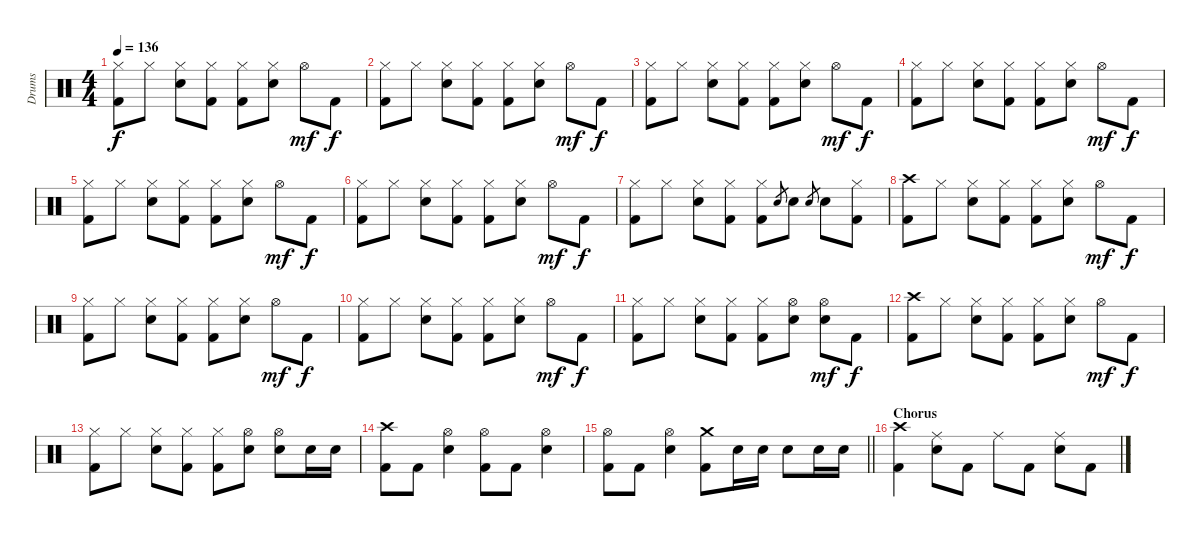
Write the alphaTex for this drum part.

\track ("Drums" "Drums") {instrument percussion}
\staff {score}
\articulation defaults
\ts (4 4)
\tempo 136
\clef neutral
\ks c
("Hi-Hat (closed)" "Kick (hit) 2").8{dy f} "Hi-Hat (closed)".8 ("Hi-Hat (closed)" "Electric Snare (hit)").8 ("Hi-Hat (closed)" "Kick (hit) 2").8 ("Hi-Hat (closed)" "Kick (hit) 2").8 ("Hi-Hat (closed)" "Electric Snare (hit)").8 "Hi-Hat (open)".8{dy mf} "Kick (hit) 2".8{dy f} |
("Hi-Hat (closed)" "Kick (hit) 2").8 "Hi-Hat (closed)".8 ("Hi-Hat (closed)" "Electric Snare (hit)").8 ("Hi-Hat (closed)" "Kick (hit) 2").8 ("Hi-Hat (closed)" "Kick (hit) 2").8 ("Hi-Hat (closed)" "Electric Snare (hit)").8 "Hi-Hat (open)".8{dy mf} "Kick (hit) 2".8{dy f} |
("Hi-Hat (closed)" "Kick (hit) 2").8 "Hi-Hat (closed)".8 ("Hi-Hat (closed)" "Electric Snare (hit)").8 ("Hi-Hat (closed)" "Kick (hit) 2").8 ("Hi-Hat (closed)" "Kick (hit) 2").8 ("Hi-Hat (closed)" "Electric Snare (hit)").8 "Hi-Hat (open)".8{dy mf} "Kick (hit) 2".8{dy f} |
("Hi-Hat (closed)" "Kick (hit) 2").8 "Hi-Hat (closed)".8 ("Hi-Hat (closed)" "Electric Snare (hit)").8 ("Hi-Hat (closed)" "Kick (hit) 2").8 ("Hi-Hat (closed)" "Kick (hit) 2").8 ("Hi-Hat (closed)" "Electric Snare (hit)").8 "Hi-Hat (open)".8{dy mf} "Kick (hit) 2".8{dy f} |
("Hi-Hat (closed)" "Kick (hit) 2").8 "Hi-Hat (closed)".8 ("Hi-Hat (closed)" "Electric Snare (hit)").8 ("Hi-Hat (closed)" "Kick (hit) 2").8 ("Hi-Hat (closed)" "Kick (hit) 2").8 ("Hi-Hat (closed)" "Electric Snare (hit)").8 "Hi-Hat (open)".8{dy mf} "Kick (hit) 2".8{dy f} |
("Hi-Hat (closed)" "Kick (hit) 2").8 "Hi-Hat (closed)".8 ("Hi-Hat (closed)" "Electric Snare (hit)").8 ("Hi-Hat (closed)" "Kick (hit) 2").8 ("Hi-Hat (closed)" "Kick (hit) 2").8 ("Hi-Hat (closed)" "Electric Snare (hit)").8 "Hi-Hat (open)".8{dy mf} "Kick (hit) 2".8{dy f} |
("Hi-Hat (closed)" "Kick (hit) 2").8 "Hi-Hat (closed)".8 ("Hi-Hat (closed)" "Electric Snare (hit)").8 ("Hi-Hat (closed)" "Kick (hit) 2").8 ("Hi-Hat (closed)" "Kick (hit) 2").8 "Electric Snare (hit)".8{gr} "Electric Snare (hit)".8 "Electric Snare (hit)".8{gr} "Electric Snare (hit)".8 ("Hi-Hat (closed)" "Kick (hit) 2").8 |
("Crash high (hit)" "Kick (hit) 2").8 "Hi-Hat (closed)".8 ("Hi-Hat (closed)" "Electric Snare (hit)").8 ("Hi-Hat (closed)" "Kick (hit) 2").8 ("Hi-Hat (closed)" "Kick (hit) 2").8 ("Hi-Hat (closed)" "Electric Snare (hit)").8 "Hi-Hat (open)".8{dy mf} "Kick (hit) 2".8{dy f} |
("Hi-Hat (closed)" "Kick (hit) 2").8 "Hi-Hat (closed)".8 ("Hi-Hat (closed)" "Electric Snare (hit)").8 ("Hi-Hat (closed)" "Kick (hit) 2").8 ("Hi-Hat (closed)" "Kick (hit) 2").8 ("Hi-Hat (closed)" "Electric Snare (hit)").8 "Hi-Hat (open)".8{dy mf} "Kick (hit) 2".8{dy f} |
("Hi-Hat (closed)" "Kick (hit) 2").8 "Hi-Hat (closed)".8 ("Hi-Hat (closed)" "Electric Snare (hit)").8 ("Hi-Hat (closed)" "Kick (hit) 2").8 ("Hi-Hat (closed)" "Kick (hit) 2").8 ("Hi-Hat (closed)" "Electric Snare (hit)").8 "Hi-Hat (open)".8{dy mf} "Kick (hit) 2".8{dy f} |
("Hi-Hat (closed)" "Kick (hit) 2").8 "Hi-Hat (closed)".8 ("Hi-Hat (closed)" "Electric Snare (hit)").8 ("Hi-Hat (closed)" "Kick (hit) 2").8 ("Hi-Hat (closed)" "Kick (hit) 2").8 ("Hi-Hat (open)" "Electric Snare (hit)").8 ("Hi-Hat (open)" "Electric Snare (hit)").8{dy mf} "Kick (hit) 2".8{dy f} |
("Crash high (hit)" "Kick (hit) 2").8 "Hi-Hat (closed)".8 ("Hi-Hat (closed)" "Electric Snare (hit)").8 ("Hi-Hat (closed)" "Kick (hit) 2").8 ("Hi-Hat (closed)" "Kick (hit) 2").8 ("Hi-Hat (closed)" "Electric Snare (hit)").8 "Hi-Hat (open)".8{dy mf} "Kick (hit) 2".8{dy f} |
("Hi-Hat (closed)" "Kick (hit) 2").8 "Hi-Hat (closed)".8 ("Hi-Hat (closed)" "Electric Snare (hit)").8 ("Hi-Hat (closed)" "Kick (hit) 2").8 ("Hi-Hat (closed)" "Kick (hit) 2").8 ("Hi-Hat (open)" "Electric Snare (hit)").8 ("Hi-Hat (open)" "Electric Snare (hit)").8 "Electric Snare (hit)".16 "Electric Snare (hit)".16 |
("Crash high (hit)" "Kick (hit) 2").8 "Kick (hit) 2".8 ("Hi-Hat (open)" "Electric Snare (hit)").4 ("Hi-Hat (open)" "Kick (hit) 2").8 "Kick (hit) 2".8 ("Hi-Hat (open)" "Electric Snare (hit)").4 |
\barLineRight lightlight
("Hi-Hat (open)" "Kick (hit) 2").8 "Kick (hit) 2".8 ("Hi-Hat (open)" "Electric Snare (hit)").4 ("Crash medium (hit)" "Kick (hit) 2").8 "Electric Snare (hit)".16 "Electric Snare (hit)".16 "Electric Snare (hit)".8 "Electric Snare (hit)".16 "Electric Snare (hit)".16 |
\section ("" "Chorus")
("Crash high (hit)" "Kick (hit) 2").4 ("Ride (middle)" "Electric Snare (hit)").8 "Kick (hit) 2".8 "Ride (middle)".8 "Kick (hit) 2".8 ("Ride (middle)" "Electric Snare (hit)").8 "Kick (hit) 2".8
